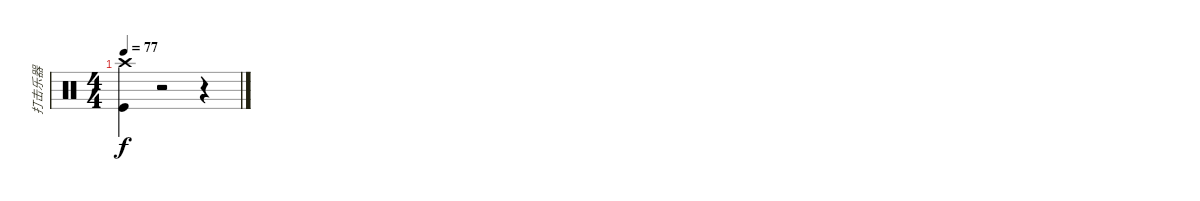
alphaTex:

\track ("打击乐器" "打击乐器") {instrument percussion}
\staff {score}
\articulation defaults
\ts (4 4)
\tempo 77
\clef neutral
\ks c
("Crash high (hit)" "Kick (hit)").4{dy f} r.2 r.4
